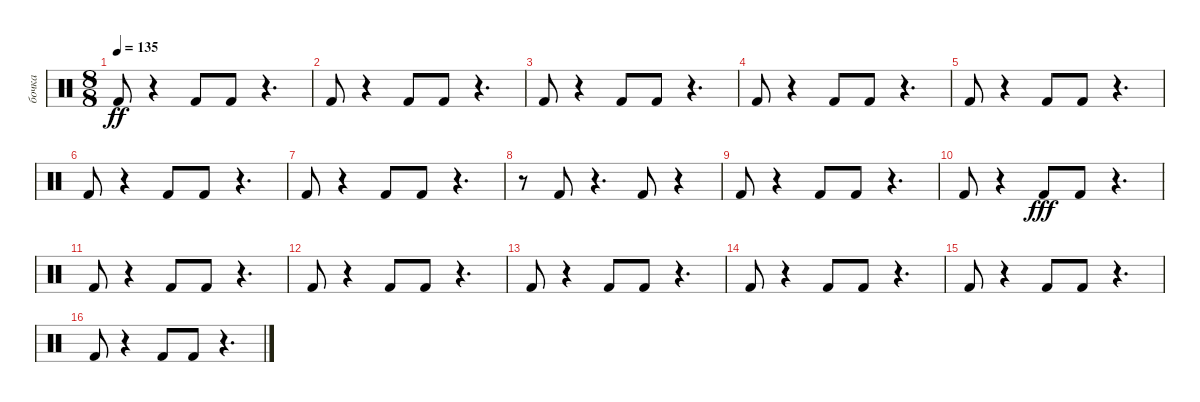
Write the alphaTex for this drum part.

\track ("бочка" "бочка") {instrument percussion}
\staff {score}
\articulation defaults
\ts (8 8)
\tempo 135
\clef neutral
\ks c "Kick (hit) 2".8{dy ff}
r.4 "Kick (hit) 2".8 "Kick (hit) 2".8 r.4{d} |
"Kick (hit) 2".8 r.4 "Kick (hit) 2".8 "Kick (hit) 2".8 r.4{d} |
"Kick (hit) 2".8 r.4 "Kick (hit) 2".8 "Kick (hit) 2".8 r.4{d} |
"Kick (hit) 2".8 r.4 "Kick (hit) 2".8 "Kick (hit) 2".8 r.4{d} |
"Kick (hit) 2".8 r.4 "Kick (hit) 2".8 "Kick (hit) 2".8 r.4{d} |
"Kick (hit) 2".8 r.4 "Kick (hit) 2".8 "Kick (hit) 2".8 r.4{d} |
"Kick (hit) 2".8 r.4 "Kick (hit) 2".8 "Kick (hit) 2".8 r.4{d} |
r.8 "Kick (hit) 2".8 r.4{d} "Kick (hit) 2".8 r.4 |
"Kick (hit) 2".8 r.4 "Kick (hit) 2".8 "Kick (hit) 2".8 r.4{d} |
"Kick (hit) 2".8 r.4 "Kick (hit) 2".8{dy fff} "Kick (hit) 2".8 r.4{d} |
"Kick (hit) 2".8 r.4 "Kick (hit) 2".8 "Kick (hit) 2".8 r.4{d} |
"Kick (hit) 2".8 r.4 "Kick (hit) 2".8 "Kick (hit) 2".8 r.4{d} |
"Kick (hit) 2".8 r.4 "Kick (hit) 2".8 "Kick (hit) 2".8 r.4{d} |
"Kick (hit) 2".8 r.4 "Kick (hit) 2".8 "Kick (hit) 2".8 r.4{d} |
"Kick (hit) 2".8 r.4 "Kick (hit) 2".8 "Kick (hit) 2".8 r.4{d} |
"Kick (hit) 2".8 r.4 "Kick (hit) 2".8 "Kick (hit) 2".8 r.4{d}
